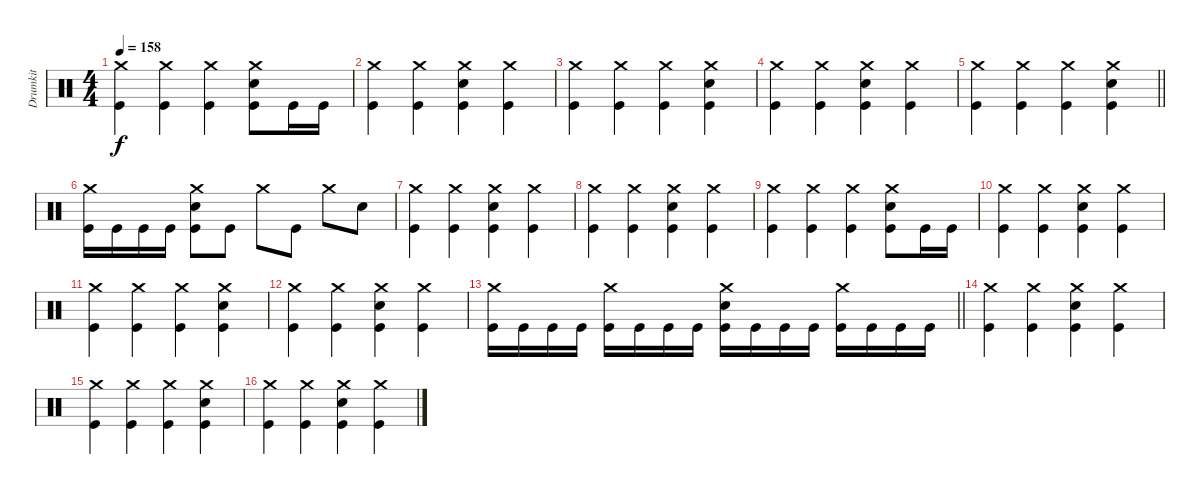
\track ("Drumkit" "Drumkit") {instrument percussion}
\staff {score}
\articulation defaults
\ts (4 4)
\tempo 158
\clef neutral
\ks c
("Crash medium (hit)" "Kick (hit)").4{dy f} ("Crash medium (hit)" "Kick (hit)").4 ("Crash medium (hit)" "Kick (hit)").4 ("Crash medium (hit)" "Snare (hit) 2" "Kick (hit)").8 "Kick (hit)".16 "Kick (hit)".16 |
("Crash medium (hit)" "Kick (hit)").4 ("Crash medium (hit)" "Kick (hit)").4 ("Crash medium (hit)" "Snare (hit) 2" "Kick (hit)").4 ("Crash medium (hit)" "Kick (hit)").4 |
("Crash medium (hit)" "Kick (hit)").4 ("Crash medium (hit)" "Kick (hit)").4 ("Crash medium (hit)" "Kick (hit)").4 ("Crash medium (hit)" "Snare (hit) 2" "Kick (hit)").4 |
("Crash medium (hit)" "Kick (hit)").4 ("Crash medium (hit)" "Kick (hit)").4 ("Crash medium (hit)" "Snare (hit) 2" "Kick (hit)").4 ("Crash medium (hit)" "Kick (hit)").4 |
\barLineRight lightlight
("Crash medium (hit)" "Kick (hit)").4 ("Crash medium (hit)" "Kick (hit)").4 ("Crash medium (hit)" "Kick (hit)").4 ("Crash medium (hit)" "Snare (hit) 2" "Kick (hit)").4 |
\section ("" "")
("Crash medium (hit)" "Kick (hit)").16 "Kick (hit)".16 "Kick (hit)".16 "Kick (hit)".16 ("Crash medium (hit)" "Snare (hit) 2" "Kick (hit)").8 "Kick (hit)".8 "Crash medium (hit)".8 "Kick (hit)".8 "Crash medium (hit)".8 "Snare (hit) 2".8 |
("Crash medium (hit)" "Kick (hit)").4 ("Crash medium (hit)" "Kick (hit)").4 ("Crash medium (hit)" "Snare (hit) 2" "Kick (hit)").4 ("Crash medium (hit)" "Kick (hit)").4 |
("Crash medium (hit)" "Kick (hit)").4 ("Crash medium (hit)" "Kick (hit)").4 ("Crash medium (hit)" "Snare (hit) 2" "Kick (hit)").4 ("Crash medium (hit)" "Kick (hit)").4 |
("Crash medium (hit)" "Kick (hit)").4 ("Crash medium (hit)" "Kick (hit)").4 ("Crash medium (hit)" "Kick (hit)").4 ("Crash medium (hit)" "Snare (hit) 2" "Kick (hit)").8 "Kick (hit)".16 "Kick (hit)".16 |
("Crash medium (hit)" "Kick (hit)").4 ("Crash medium (hit)" "Kick (hit)").4 ("Crash medium (hit)" "Snare (hit) 2" "Kick (hit)").4 ("Crash medium (hit)" "Kick (hit)").4 |
("Crash medium (hit)" "Kick (hit)").4 ("Crash medium (hit)" "Kick (hit)").4 ("Crash medium (hit)" "Kick (hit)").4 ("Crash medium (hit)" "Snare (hit) 2" "Kick (hit)").4 |
("Crash medium (hit)" "Kick (hit)").4 ("Crash medium (hit)" "Kick (hit)").4 ("Crash medium (hit)" "Snare (hit) 2" "Kick (hit)").4 ("Crash medium (hit)" "Kick (hit)").4 |
\barLineRight lightlight
("Crash medium (hit)" "Kick (hit)").16 "Kick (hit)".16 "Kick (hit)".16 "Kick (hit)".16 ("Crash medium (hit)" "Kick (hit)").16 "Kick (hit)".16 "Kick (hit)".16 "Kick (hit)".16 ("Crash medium (hit)" "Snare (hit) 2" "Kick (hit)").16 "Kick (hit)".16 "Kick (hit)".16 "Kick (hit)".16 ("Crash medium (hit)" "Kick (hit)").16 "Kick (hit)".16 "Kick (hit)".16 "Kick (hit)".16 |
\section ("" "")
("Crash medium (hit)" "Kick (hit)").4 ("Crash medium (hit)" "Kick (hit)").4 ("Crash medium (hit)" "Snare (hit) 2" "Kick (hit)").4 ("Crash medium (hit)" "Kick (hit)").4 |
("Crash medium (hit)" "Kick (hit)").4 ("Crash medium (hit)" "Kick (hit)").4 ("Crash medium (hit)" "Kick (hit)").4 ("Crash medium (hit)" "Snare (hit) 2" "Kick (hit)").4 |
("Crash medium (hit)" "Kick (hit)").4 ("Crash medium (hit)" "Kick (hit)").4 ("Crash medium (hit)" "Snare (hit) 2" "Kick (hit)").4 ("Crash medium (hit)" "Kick (hit)").4
